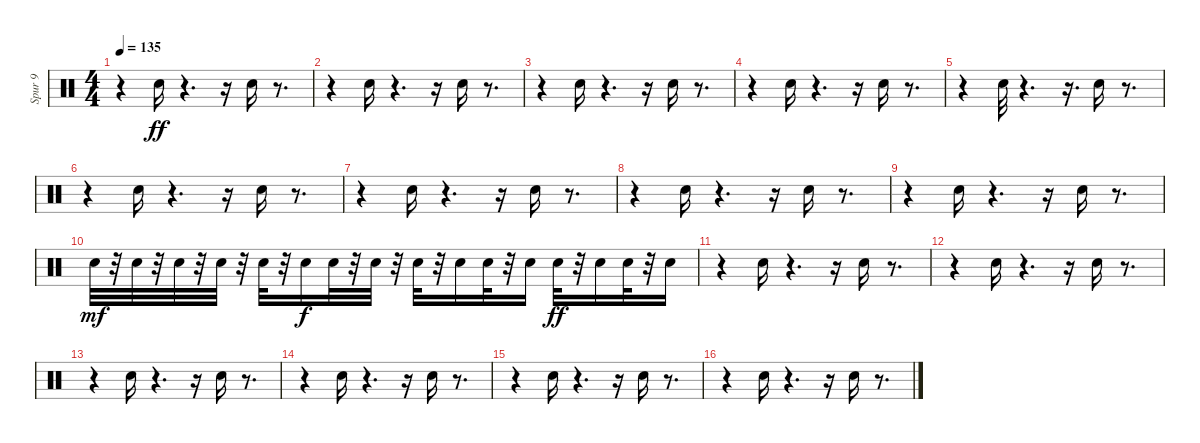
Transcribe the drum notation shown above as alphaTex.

\track ("Spur 9" "Spur 9") {instrument percussion}
\staff {score}
\articulation defaults
\ts (4 4)
\tempo 135
\clef neutral
\ks c
r.4{dy ff} "Electric Snare (hit)".16 r.4{d} r.16 "Electric Snare (hit)".16 r.8{d} |
r.4 "Electric Snare (hit)".16 r.4{d} r.16 "Electric Snare (hit)".16 r.8{d} |
r.4 "Electric Snare (hit)".16 r.4{d} r.16 "Electric Snare (hit)".16 r.8{d} |
r.4 "Electric Snare (hit)".16 r.4{d} r.16 "Electric Snare (hit)".16 r.8{d} |
r.4 "Electric Snare (hit)".32 r.4{d} r.16{d} "Electric Snare (hit)".16 r.8{d} |
r.4 "Electric Snare (hit)".16 r.4{d} r.16 "Electric Snare (hit)".16 r.8{d} |
r.4 "Electric Snare (hit)".16 r.4{d} r.16 "Electric Snare (hit)".16 r.8{d} |
r.4 "Electric Snare (hit)".16 r.4{d} r.16 "Electric Snare (hit)".16 r.8{d} |
r.4 "Electric Snare (hit)".16 r.4{d} r.16 "Electric Snare (hit)".16 r.8{d} |
"Electric Snare (hit)".32{dy mf} r.32 "Electric Snare (hit)".32 r.32 "Electric Snare (hit)".32 r.32 "Electric Snare (hit)".32 r.32 "Electric Snare (hit)".32 r.32 "Electric Snare (hit)".16{dy f} "Electric Snare (hit)".32 r.32 "Electric Snare (hit)".32 r.32 "Electric Snare (hit)".32 r.32 "Electric Snare (hit)".16 "Electric Snare (hit)".32 r.32 "Electric Snare (hit)".16 "Electric Snare (hit)".32{dy ff} r.32 "Electric Snare (hit)".16 "Electric Snare (hit)".32 r.32 "Electric Snare (hit)".16 |
r.4 "Electric Snare (hit)".16 r.4{d} r.16 "Electric Snare (hit)".16 r.8{d} |
r.4 "Electric Snare (hit)".16 r.4{d} r.16 "Electric Snare (hit)".16 r.8{d} |
r.4 "Electric Snare (hit)".16 r.4{d} r.16 "Electric Snare (hit)".16 r.8{d} |
r.4 "Electric Snare (hit)".16 r.4{d} r.16 "Electric Snare (hit)".16 r.8{d} |
r.4 "Electric Snare (hit)".16 r.4{d} r.16 "Electric Snare (hit)".16 r.8{d} |
r.4 "Electric Snare (hit)".16 r.4{d} r.16 "Electric Snare (hit)".16 r.8{d}
